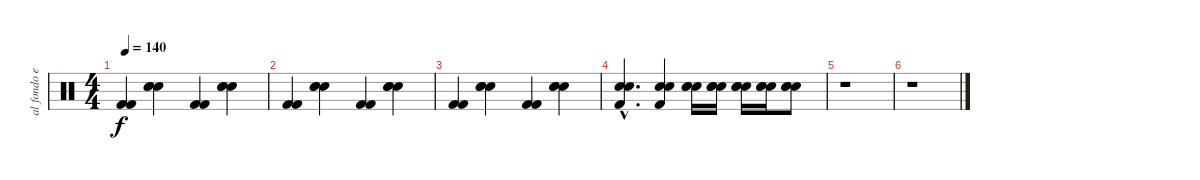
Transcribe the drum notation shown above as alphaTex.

\track ("al fondo en la bateria Mr Pedro Andreu" "al fondo e") {instrument percussion}
\staff {score}
\articulation defaults
\ts (4 4)
\tempo 140
\clef neutral
\ks c
("Kick (hit) 2" "Kick (hit) 2").4{dy f} ("Snare (hit) 2" "Snare (hit) 2" "Snare (hit) 2").4 ("Kick (hit) 2" "Kick (hit) 2").4 ("Snare (hit) 2" "Snare (hit) 2" "Snare (hit) 2").4 |
("Kick (hit) 2" "Kick (hit) 2").4 ("Snare (hit) 2" "Snare (hit) 2" "Snare (hit) 2").4 ("Kick (hit) 2" "Kick (hit) 2").4 ("Snare (hit) 2" "Snare (hit) 2" "Snare (hit) 2").4 |
("Kick (hit) 2" "Kick (hit) 2").4 ("Snare (hit) 2" "Snare (hit) 2" "Snare (hit) 2").4 ("Kick (hit) 2" "Kick (hit) 2").4 ("Snare (hit) 2" "Snare (hit) 2" "Snare (hit) 2").4 |
("Snare (hit) 2"{hac} "Snare (hit) 2"{hac} "Kick (hit) 2"{hac}).4{d} ("Snare (hit) 2" "Snare (hit) 2" "Kick (hit) 2").4 ("Snare (hit) 2" "Snare (hit) 2" "Snare (hit) 2").16 ("Snare (hit) 2" "Snare (hit) 2" "Snare (hit) 2").16 ("Snare (hit) 2" "Snare (hit) 2" "Snare (hit) 2").16 ("Snare (hit) 2" "Snare (hit) 2" "Snare (hit) 2").16 ("Snare (hit) 2" "Snare (hit) 2" "Snare (hit) 2").8 |
r.1 |
r.1
